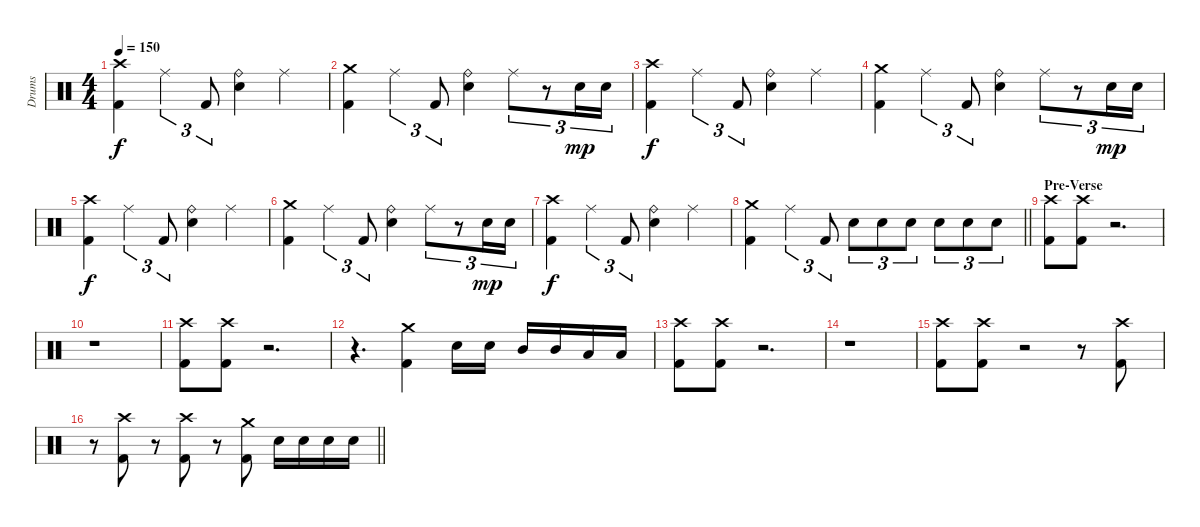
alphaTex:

\track ("Drums" "Drums") {instrument percussion}
\staff {score}
\articulation defaults
\ts (4 4)
\tempo 150
\clef neutral
\ks c
("Crash high (hit)" "Kick (hit) 2").4{dy f} "Ride (middle)".4{tu (3 2)} "Kick (hit) 2".8{tu (3 2)} ("Ride (bell)" "Electric Snare (hit)").4 "Ride (middle)".4 |
("Crash medium (hit)" "Kick (hit) 2").4 "Ride (middle)".4{tu (3 2)} "Kick (hit) 2".8{tu (3 2)} ("Ride (bell)" "Electric Snare (hit)").4 "Ride (middle)".8{tu (3 2)} r.8{tu (3 2)} "Electric Snare (hit)".16{tu (3 2) dy mp} "Electric Snare (hit)".16{tu (3 2)} |
("Crash high (hit)" "Kick (hit) 2").4{dy f} "Ride (middle)".4{tu (3 2)} "Kick (hit) 2".8{tu (3 2)} ("Ride (bell)" "Electric Snare (hit)").4 "Ride (middle)".4 |
("Crash medium (hit)" "Kick (hit) 2").4 "Ride (middle)".4{tu (3 2)} "Kick (hit) 2".8{tu (3 2)} ("Ride (bell)" "Electric Snare (hit)").4 "Ride (middle)".8{tu (3 2)} r.8{tu (3 2)} "Electric Snare (hit)".16{tu (3 2) dy mp} "Electric Snare (hit)".16{tu (3 2)} |
("Crash high (hit)" "Kick (hit) 2").4{dy f} "Ride (middle)".4{tu (3 2)} "Kick (hit) 2".8{tu (3 2)} ("Ride (bell)" "Electric Snare (hit)").4 "Ride (middle)".4 |
("Crash medium (hit)" "Kick (hit) 2").4 "Ride (middle)".4{tu (3 2)} "Kick (hit) 2".8{tu (3 2)} ("Ride (bell)" "Electric Snare (hit)").4 "Ride (middle)".8{tu (3 2)} r.8{tu (3 2)} "Electric Snare (hit)".16{tu (3 2) dy mp} "Electric Snare (hit)".16{tu (3 2)} |
("Crash high (hit)" "Kick (hit) 2").4{dy f} "Ride (middle)".4{tu (3 2)} "Kick (hit) 2".8{tu (3 2)} ("Ride (bell)" "Electric Snare (hit)").4 "Ride (middle)".4 |
\barLineRight lightlight
("Crash medium (hit)" "Kick (hit) 2").4 "Ride (middle)".4{tu (3 2)} "Kick (hit) 2".8{tu (3 2)} "Electric Snare (hit)".8{tu (3 2)} "Electric Snare (hit)".8{tu (3 2)} "Electric Snare (hit)".8{tu (3 2)} "Electric Snare (hit)".8{tu (3 2)} "Electric Snare (hit)".8{tu (3 2)} "Electric Snare (hit)".8{tu (3 2)} |
\section ("" "Pre-Verse")
("Crash high (hit)" "Kick (hit) 2").8{volume 11} ("Crash high (hit)" "Kick (hit) 2").8 r.2{d volume 0} |
r.1 |
("Crash high (hit)" "Kick (hit) 2").8{volume 11} ("Crash high (hit)" "Kick (hit) 2").8 r.2{d volume 0} |
r.4{d} ("Crash medium (hit)" "Kick (hit) 2").4{volume 11} "Electric Snare (hit)".16 "Electric Snare (hit)".16 "Mid Tom (hit)".16 "Mid Tom (hit)".16 "Low Tom (hit)".16 "Low Tom (hit)".16 |
("Crash high (hit)" "Kick (hit) 2").8{volume 11} ("Crash high (hit)" "Kick (hit) 2").8 r.2{d volume 0} |
r.1 |
("Crash high (hit)" "Kick (hit) 2").8{volume 11} ("Crash high (hit)" "Kick (hit) 2").8 r.2{volume 0} r.8 ("Crash high (hit)" "Kick (hit) 2").8{volume 11} |
\barLineRight lightlight
r.8{volume 0} ("Crash high (hit)" "Kick (hit) 2").8{volume 11} r.8{volume 0} ("Crash high (hit)" "Kick (hit) 2").8{volume 11} r.8{volume 0} ("Crash medium (hit)" "Kick (hit) 2").8{volume 11} "Electric Snare (hit)".16 "Electric Snare (hit)".16 "Electric Snare (hit)".16 "Electric Snare (hit)".16
